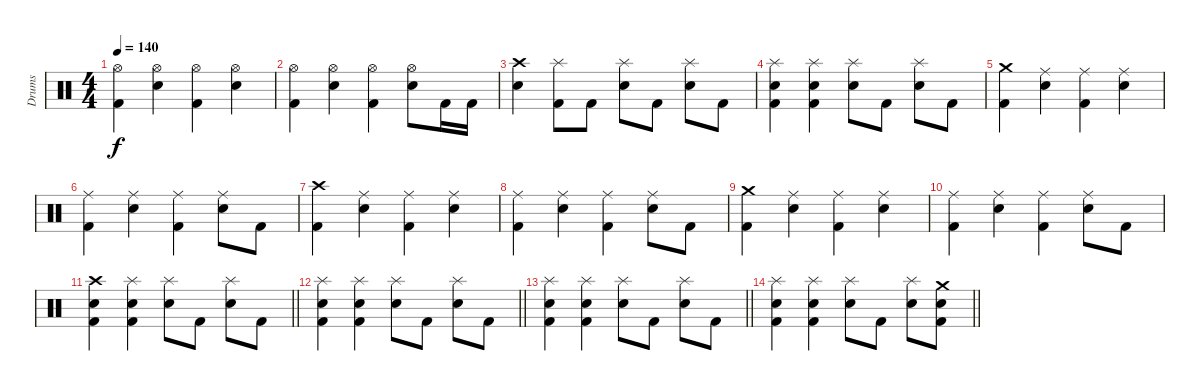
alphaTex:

\track ("Drums" "Drums") {instrument percussion}
\staff {score}
\articulation defaults
\ts (4 4)
\tempo 140
\clef neutral
\ks c
("Hi-Hat (open)" "Kick (hit) 2").4{dy f} ("Hi-Hat (open)" "Electric Snare (hit)").4 ("Hi-Hat (open)" "Kick (hit) 2").4 ("Hi-Hat (open)" "Electric Snare (hit)").4 |
("Hi-Hat (open)" "Kick (hit) 2").4 ("Hi-Hat (open)" "Electric Snare (hit)").4 ("Hi-Hat (open)" "Kick (hit) 2").4 ("Hi-Hat (open)" "Electric Snare (hit)").8 "Kick (hit) 2".16 "Kick (hit) 2".16 |
("Crash high (hit)" "Electric Snare (hit)").4 ("Splash (hit)" "Kick (hit) 2").8 "Kick (hit) 2".8 ("Splash (hit)" "Electric Snare (hit)").8 "Kick (hit) 2".8 ("Splash (hit)" "Electric Snare (hit)").8 "Kick (hit) 2".8 |
("Splash (hit)" "Electric Snare (hit)" "Kick (hit) 2").4 ("Splash (hit)" "Electric Snare (hit)" "Kick (hit) 2").4 ("Splash (hit)" "Electric Snare (hit)").8 "Kick (hit) 2".8 ("Splash (hit)" "Electric Snare (hit)").8 "Kick (hit) 2".8 |
("Crash medium (hit)" "Kick (hit) 2").4 ("Ride (middle)" "Electric Snare (hit)").4 ("Ride (middle)" "Kick (hit) 2").4 ("Ride (middle)" "Electric Snare (hit)").4 |
("Ride (middle)" "Kick (hit) 2").4 ("Ride (middle)" "Electric Snare (hit)").4 ("Ride (middle)" "Kick (hit) 2").4 ("Ride (middle)" "Electric Snare (hit)").8 "Kick (hit) 2".8 |
("Crash high (hit)" "Kick (hit) 2").4 ("Ride (middle)" "Electric Snare (hit)").4 ("Ride (middle)" "Kick (hit) 2").4 ("Ride (middle)" "Electric Snare (hit)").4 |
("Ride (middle)" "Kick (hit) 2").4 ("Ride (middle)" "Electric Snare (hit)").4 ("Ride (middle)" "Kick (hit) 2").4 ("Ride (middle)" "Electric Snare (hit)").8 "Kick (hit) 2".8 |
("Crash medium (hit)" "Kick (hit) 2").4 ("Ride (middle)" "Electric Snare (hit)").4 ("Ride (middle)" "Kick (hit) 2").4 ("Ride (middle)" "Electric Snare (hit)").4 |
("Ride (middle)" "Kick (hit) 2").4 ("Ride (middle)" "Electric Snare (hit)").4 ("Ride (middle)" "Kick (hit) 2").4 ("Ride (middle)" "Electric Snare (hit)").8 "Kick (hit) 2".8 |
\barLineRight lightlight
("Crash high (hit)" "Electric Snare (hit)" "Kick (hit) 2").4 ("Splash (hit)" "Electric Snare (hit)" "Kick (hit) 2").4 ("Splash (hit)" "Electric Snare (hit)").8 "Kick (hit) 2".8 ("Splash (hit)" "Electric Snare (hit)").8 "Kick (hit) 2".8 |
\barLineRight lightlight
("Splash (hit)" "Electric Snare (hit)" "Kick (hit) 2").4 ("Splash (hit)" "Electric Snare (hit)" "Kick (hit) 2").4 ("Splash (hit)" "Electric Snare (hit)").8 "Kick (hit) 2".8 ("Splash (hit)" "Electric Snare (hit)").8 "Kick (hit) 2".8 |
\barLineRight lightlight
("Splash (hit)" "Electric Snare (hit)" "Kick (hit) 2").4 ("Splash (hit)" "Electric Snare (hit)" "Kick (hit) 2").4 ("Splash (hit)" "Electric Snare (hit)").8 "Kick (hit) 2".8 ("Splash (hit)" "Electric Snare (hit)").8 "Kick (hit) 2".8 |
\barLineRight lightlight
("Splash (hit)" "Electric Snare (hit)" "Kick (hit) 2").4 ("Splash (hit)" "Electric Snare (hit)" "Kick (hit) 2").4 ("Splash (hit)" "Electric Snare (hit)").8 "Kick (hit) 2".8 ("Splash (hit)" "Electric Snare (hit)").8 ("Crash medium (hit)" "Electric Snare (hit)" "Kick (hit) 2").8
